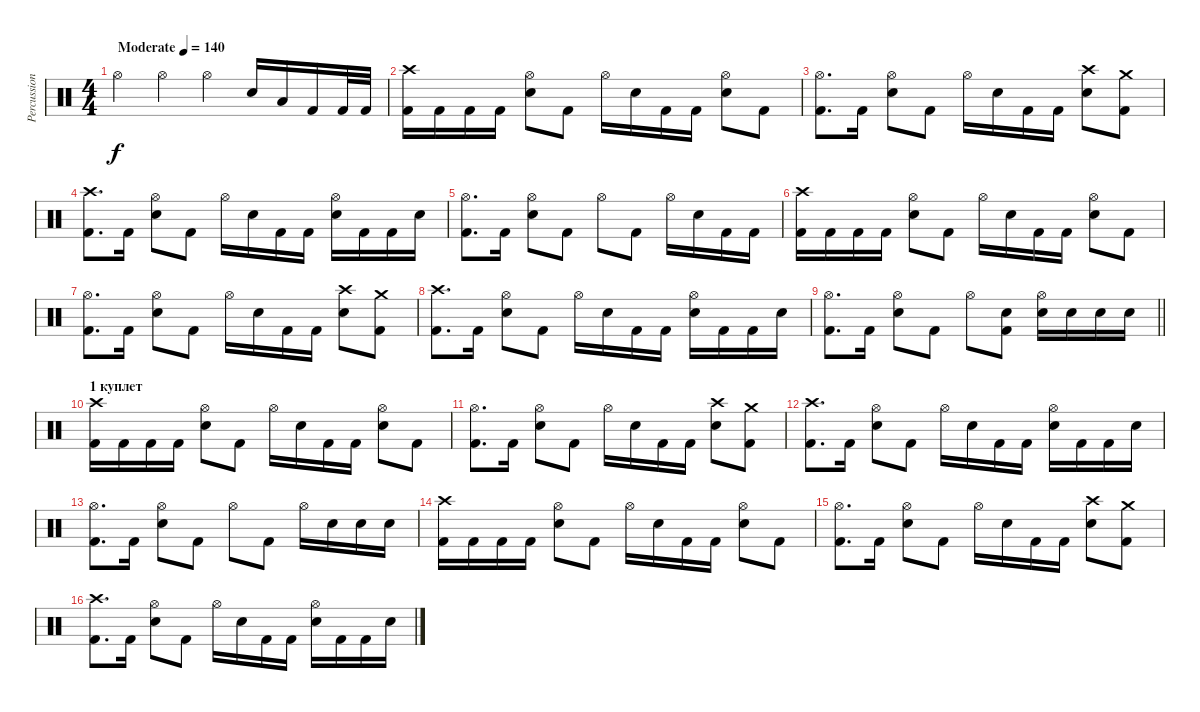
\track ("Percussion" "Percussion") {instrument percussion}
\staff {score}
\articulation defaults
\ts (4 4)
\tempo (140 "Moderate")
\clef neutral
\ks c "Hi-Hat (open)".4{dy f} "Hi-Hat (open)".4 "Hi-Hat (open)".4 "Snare (hit) 2".16 "Low Tom (hit)".16 "Kick (hit) 2".16 "Kick (hit) 2".32 "Kick (hit) 2".32
|
("Crash high (hit)" "Kick (hit) 2").16 "Kick (hit) 2".16 "Kick (hit) 2".16 "Kick (hit) 2".16 ("Hi-Hat (open)" "Snare (hit) 2").8 "Kick (hit) 2".8 "Hi-Hat (open)".16 "Snare (hit) 2".16 "Kick (hit) 2".16 "Kick (hit) 2".16 ("Hi-Hat (open)" "Snare (hit) 2").8 "Kick (hit) 2".8 |
("Hi-Hat (open)" "Kick (hit) 2").8{d} "Kick (hit) 2".16 ("Hi-Hat (open)" "Snare (hit) 2").8 "Kick (hit) 2".8 "Hi-Hat (open)".16 "Snare (hit) 2".16 "Kick (hit) 2".16 "Kick (hit) 2".16 ("Crash high (hit)" "Snare (hit) 2").8 ("Crash medium (hit)" "Kick (hit) 2").8 |
("Crash high (hit)" "Kick (hit) 2").8{d} "Kick (hit) 2".16 ("Hi-Hat (open)" "Snare (hit) 2").8 "Kick (hit) 2".8 "Hi-Hat (open)".16 "Snare (hit) 2".16 "Kick (hit) 2".16 "Kick (hit) 2".16 ("Hi-Hat (open)" "Snare (hit) 2").16 "Kick (hit) 2".16 "Kick (hit) 2".16 "Snare (hit) 2".16 |
("Hi-Hat (open)" "Kick (hit) 2").8{d} "Kick (hit) 2".16 ("Hi-Hat (open)" "Snare (hit) 2").8 "Kick (hit) 2".8 "Hi-Hat (open)".8 "Kick (hit) 2".8 "Hi-Hat (open)".16 "Snare (hit) 2".16 "Kick (hit) 2".16 "Kick (hit) 2".16 |
("Crash high (hit)" "Kick (hit) 2").16 "Kick (hit) 2".16 "Kick (hit) 2".16 "Kick (hit) 2".16 ("Hi-Hat (open)" "Snare (hit) 2").8 "Kick (hit) 2".8 "Hi-Hat (open)".16 "Snare (hit) 2".16 "Kick (hit) 2".16 "Kick (hit) 2".16 ("Hi-Hat (open)" "Snare (hit) 2").8 "Kick (hit) 2".8 |
("Hi-Hat (open)" "Kick (hit) 2").8{d} "Kick (hit) 2".16 ("Hi-Hat (open)" "Snare (hit) 2").8 "Kick (hit) 2".8 "Hi-Hat (open)".16 "Snare (hit) 2".16 "Kick (hit) 2".16 "Kick (hit) 2".16 ("Crash high (hit)" "Snare (hit) 2").8 ("Crash medium (hit)" "Kick (hit) 2").8 |
("Crash high (hit)" "Kick (hit) 2").8{d} "Kick (hit) 2".16 ("Hi-Hat (open)" "Snare (hit) 2").8 "Kick (hit) 2".8 "Hi-Hat (open)".16 "Snare (hit) 2".16 "Kick (hit) 2".16 "Kick (hit) 2".16 ("Hi-Hat (open)" "Snare (hit) 2").16 "Kick (hit) 2".16 "Kick (hit) 2".16 "Snare (hit) 2".16 |
\barLineRight lightlight
("Hi-Hat (open)" "Kick (hit) 2").8{d} "Kick (hit) 2".16 ("Hi-Hat (open)" "Snare (hit) 2").8 "Kick (hit) 2".8 "Hi-Hat (open)".8 ("Snare (hit) 2" "Kick (hit) 2").8 ("Hi-Hat (open)" "Snare (hit) 2").16 "Snare (hit) 2".16 "Snare (hit) 2".16 "Snare (hit) 2".16 |
\section ("" "1 куплет")
("Crash high (hit)" "Kick (hit) 2").16 "Kick (hit) 2".16 "Kick (hit) 2".16 "Kick (hit) 2".16 ("Hi-Hat (open)" "Snare (hit) 2").8 "Kick (hit) 2".8 "Hi-Hat (open)".16 "Snare (hit) 2".16 "Kick (hit) 2".16 "Kick (hit) 2".16 ("Hi-Hat (open)" "Snare (hit) 2").8 "Kick (hit) 2".8 |
("Hi-Hat (open)" "Kick (hit) 2").8{d} "Kick (hit) 2".16 ("Hi-Hat (open)" "Snare (hit) 2").8 "Kick (hit) 2".8 "Hi-Hat (open)".16 "Snare (hit) 2".16 "Kick (hit) 2".16 "Kick (hit) 2".16 ("Crash high (hit)" "Snare (hit) 2").8 ("Crash medium (hit)" "Kick (hit) 2").8 |
("Crash high (hit)" "Kick (hit) 2").8{d} "Kick (hit) 2".16 ("Hi-Hat (open)" "Snare (hit) 2").8 "Kick (hit) 2".8 "Hi-Hat (open)".16 "Snare (hit) 2".16 "Kick (hit) 2".16 "Kick (hit) 2".16 ("Hi-Hat (open)" "Snare (hit) 2").16 "Kick (hit) 2".16 "Kick (hit) 2".16 "Snare (hit) 2".16 |
("Hi-Hat (open)" "Kick (hit) 2").8{d} "Kick (hit) 2".16 ("Hi-Hat (open)" "Snare (hit) 2").8 "Kick (hit) 2".8 "Hi-Hat (open)".8 "Kick (hit) 2".8 "Hi-Hat (open)".16 "Snare (hit) 2".16 "Snare (hit) 2".16 "Snare (hit) 2".16 |
("Crash high (hit)" "Kick (hit) 2").16 "Kick (hit) 2".16 "Kick (hit) 2".16 "Kick (hit) 2".16 ("Hi-Hat (open)" "Snare (hit) 2").8 "Kick (hit) 2".8 "Hi-Hat (open)".16 "Snare (hit) 2".16 "Kick (hit) 2".16 "Kick (hit) 2".16 ("Hi-Hat (open)" "Snare (hit) 2").8 "Kick (hit) 2".8 |
("Hi-Hat (open)" "Kick (hit) 2").8{d} "Kick (hit) 2".16 ("Hi-Hat (open)" "Snare (hit) 2").8 "Kick (hit) 2".8 "Hi-Hat (open)".16 "Snare (hit) 2".16 "Kick (hit) 2".16 "Kick (hit) 2".16 ("Crash high (hit)" "Snare (hit) 2").8 ("Crash medium (hit)" "Kick (hit) 2").8 |
("Crash high (hit)" "Kick (hit) 2").8{d} "Kick (hit) 2".16 ("Hi-Hat (open)" "Snare (hit) 2").8 "Kick (hit) 2".8 "Hi-Hat (open)".16 "Snare (hit) 2".16 "Kick (hit) 2".16 "Kick (hit) 2".16 ("Hi-Hat (open)" "Snare (hit) 2").16 "Kick (hit) 2".16 "Kick (hit) 2".16 "Snare (hit) 2".16
